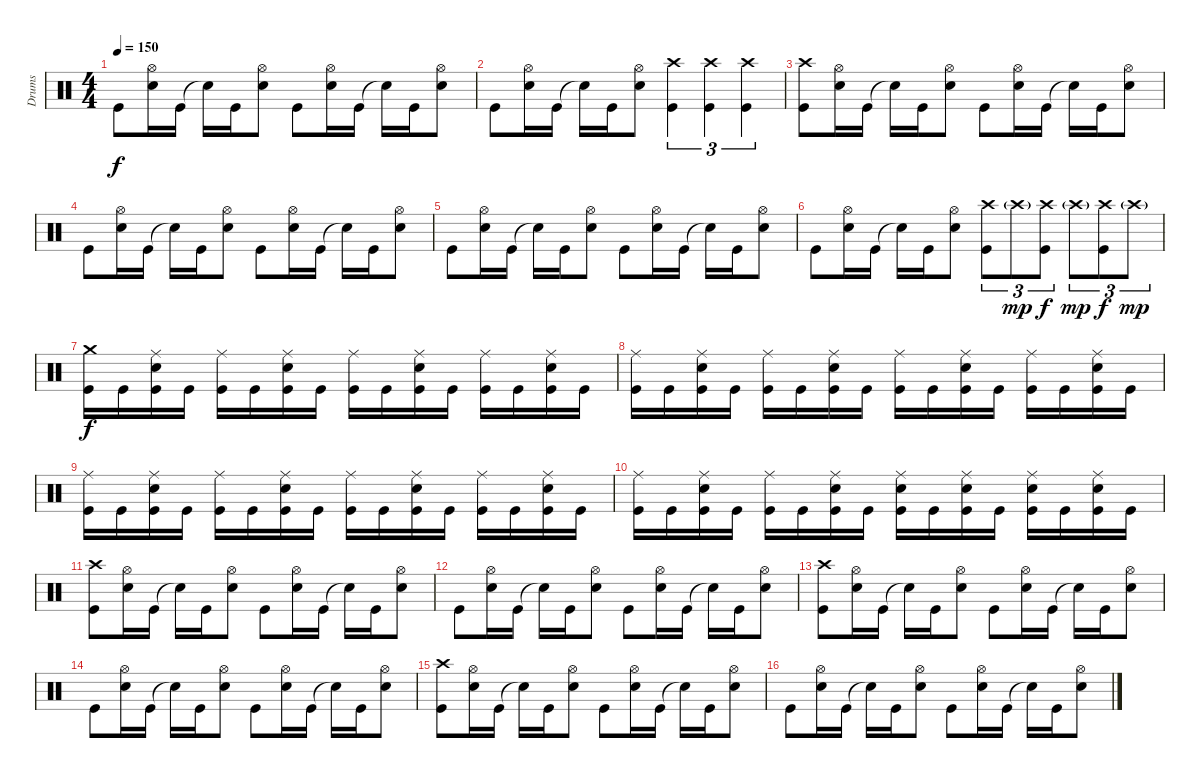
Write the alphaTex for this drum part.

\track ("Drums" "Drums") {instrument percussion}
\staff {score}
\articulation defaults
\ts (4 4)
\tempo 150
\clef neutral
\ks c "Kick (hit)".8{dy f}
("Snare (hit) 2" "Hi-Hat (open)").16 "Kick (hit)".16 "Snare (hit)"{t}.16 "Kick (hit)".16 ("Snare (hit) 2" "Hi-Hat (open)").8 "Kick (hit)".8 ("Snare (hit) 2" "Hi-Hat (open)").16 "Kick (hit)".16 "Snare (hit)"{t}.16 "Kick (hit)".16 ("Snare (hit) 2" "Hi-Hat (open)").8 |
"Kick (hit)".8 ("Snare (hit) 2" "Hi-Hat (open)").16 "Kick (hit)".16 "Snare (hit)"{t}.16 "Kick (hit)".16 ("Snare (hit) 2" "Hi-Hat (open)").8 ("Kick (hit)" "Crash high (hit)").4{tu (3 2)} ("Kick (hit)" "Crash high (hit)").4{tu (3 2)} ("Kick (hit)" "Crash high (hit)").4{tu (3 2)} |
("Kick (hit)" "Crash high (hit)").8 ("Snare (hit) 2" "Hi-Hat (open)").16 "Kick (hit)".16 "Snare (hit)"{t}.16 "Kick (hit)".16 ("Snare (hit) 2" "Hi-Hat (open)").8 "Kick (hit)".8 ("Snare (hit) 2" "Hi-Hat (open)").16 "Kick (hit)".16 "Snare (hit)"{t}.16 "Kick (hit)".16 ("Snare (hit) 2" "Hi-Hat (open)").8 |
"Kick (hit)".8 ("Snare (hit) 2" "Hi-Hat (open)").16 "Kick (hit)".16 "Snare (hit)"{t}.16 "Kick (hit)".16 ("Snare (hit) 2" "Hi-Hat (open)").8 "Kick (hit)".8 ("Snare (hit) 2" "Hi-Hat (open)").16 "Kick (hit)".16 "Snare (hit)"{t}.16 "Kick (hit)".16 ("Snare (hit) 2" "Hi-Hat (open)").8 |
"Kick (hit)".8 ("Snare (hit) 2" "Hi-Hat (open)").16 "Kick (hit)".16 "Snare (hit)"{t}.16 "Kick (hit)".16 ("Snare (hit) 2" "Hi-Hat (open)").8 "Kick (hit)".8 ("Snare (hit) 2" "Hi-Hat (open)").16 "Kick (hit)".16 "Snare (hit)"{t}.16 "Kick (hit)".16 ("Snare (hit) 2" "Hi-Hat (open)").8 |
"Kick (hit)".8 ("Snare (hit) 2" "Hi-Hat (open)").16 "Kick (hit)".16 "Snare (hit)"{t}.16 "Kick (hit)".16 ("Snare (hit) 2" "Hi-Hat (open)").8 ("Kick (hit)" "Crash high (hit)").8{tu (3 2)} "Crash high (hit)"{g}.8{tu (3 2) dy mp} ("Kick (hit)" "Crash high (hit)").8{tu (3 2) dy f} "Crash high (hit)"{g}.8{tu (3 2) dy mp} ("Kick (hit)" "Crash high (hit)").8{tu (3 2) dy f} "Crash high (hit)"{g}.8{tu (3 2) dy mp} |
("Kick (hit)" "Crash medium (hit)").16{dy f} "Kick (hit)".16 ("Kick (hit)" "Snare (hit) 2" "Ride (middle)").16 "Kick (hit)".16 ("Kick (hit)" "Ride (middle)").16 "Kick (hit)".16 ("Kick (hit)" "Snare (hit) 2" "Ride (middle)").16 "Kick (hit)".16 ("Kick (hit)" "Ride (middle)").16 "Kick (hit)".16 ("Kick (hit)" "Snare (hit) 2" "Ride (middle)").16 "Kick (hit)".16 ("Kick (hit)" "Ride (middle)").16 "Kick (hit)".16 ("Kick (hit)" "Snare (hit) 2" "Ride (middle)").16 "Kick (hit)".16 |
("Kick (hit)" "Ride (middle)").16 "Kick (hit)".16 ("Kick (hit)" "Snare (hit) 2" "Ride (middle)").16 "Kick (hit)".16 ("Kick (hit)" "Ride (middle)").16 "Kick (hit)".16 ("Kick (hit)" "Snare (hit) 2" "Ride (middle)").16 "Kick (hit)".16 ("Kick (hit)" "Ride (middle)").16 "Kick (hit)".16 ("Kick (hit)" "Snare (hit) 2" "Ride (middle)").16 "Kick (hit)".16 ("Kick (hit)" "Ride (middle)").16 "Kick (hit)".16 ("Kick (hit)" "Snare (hit) 2" "Ride (middle)").16 "Kick (hit)".16 |
("Kick (hit)" "Ride (middle)").16 "Kick (hit)".16 ("Kick (hit)" "Snare (hit) 2" "Ride (middle)").16 "Kick (hit)".16 ("Kick (hit)" "Ride (middle)").16 "Kick (hit)".16 ("Kick (hit)" "Snare (hit) 2" "Ride (middle)").16 "Kick (hit)".16 ("Kick (hit)" "Ride (middle)").16 "Kick (hit)".16 ("Kick (hit)" "Snare (hit) 2" "Ride (middle)").16 "Kick (hit)".16 ("Kick (hit)" "Ride (middle)").16 "Kick (hit)".16 ("Kick (hit)" "Snare (hit) 2" "Ride (middle)").16 "Kick (hit)".16 |
("Kick (hit)" "Ride (middle)").16 "Kick (hit)".16 ("Kick (hit)" "Snare (hit) 2" "Ride (middle)").16 "Kick (hit)".16 ("Kick (hit)" "Ride (middle)").16 "Kick (hit)".16 ("Kick (hit)" "Snare (hit) 2" "Ride (middle)").16 "Kick (hit)".16 ("Kick (hit)" "Snare (hit) 2" "Ride (middle)").16 "Kick (hit)".16 ("Kick (hit)" "Snare (hit) 2" "Ride (middle)").16 "Kick (hit)".16 ("Kick (hit)" "Snare (hit) 2" "Ride (middle)").16 "Kick (hit)".16 ("Kick (hit)" "Snare (hit) 2" "Ride (middle)").16 "Kick (hit)".16 |
("Kick (hit)" "Crash high (hit)").8 ("Snare (hit) 2" "Hi-Hat (open)").16 "Kick (hit)".16 "Snare (hit)"{t}.16 "Kick (hit)".16 ("Snare (hit) 2" "Hi-Hat (open)").8 "Kick (hit)".8 ("Snare (hit) 2" "Hi-Hat (open)").16 "Kick (hit)".16 "Snare (hit)"{t}.16 "Kick (hit)".16 ("Snare (hit) 2" "Hi-Hat (open)").8 |
"Kick (hit)".8 ("Snare (hit) 2" "Hi-Hat (open)").16 "Kick (hit)".16 "Snare (hit)"{t}.16 "Kick (hit)".16 ("Snare (hit) 2" "Hi-Hat (open)").8 "Kick (hit)".8 ("Snare (hit) 2" "Hi-Hat (open)").16 "Kick (hit)".16 "Snare (hit)"{t}.16 "Kick (hit)".16 ("Snare (hit) 2" "Hi-Hat (open)").8 |
("Kick (hit)" "Crash high (hit)").8 ("Snare (hit) 2" "Hi-Hat (open)").16 "Kick (hit)".16 "Snare (hit)"{t}.16 "Kick (hit)".16 ("Snare (hit) 2" "Hi-Hat (open)").8 "Kick (hit)".8 ("Snare (hit) 2" "Hi-Hat (open)").16 "Kick (hit)".16 "Snare (hit)"{t}.16 "Kick (hit)".16 ("Snare (hit) 2" "Hi-Hat (open)").8 |
"Kick (hit)".8 ("Snare (hit) 2" "Hi-Hat (open)").16 "Kick (hit)".16 "Snare (hit)"{t}.16 "Kick (hit)".16 ("Snare (hit) 2" "Hi-Hat (open)").8 "Kick (hit)".8 ("Snare (hit) 2" "Hi-Hat (open)").16 "Kick (hit)".16 "Snare (hit)"{t}.16 "Kick (hit)".16 ("Snare (hit) 2" "Hi-Hat (open)").8 |
("Kick (hit)" "Crash high (hit)").8 ("Snare (hit) 2" "Hi-Hat (open)").16 "Kick (hit)".16 "Snare (hit)"{t}.16 "Kick (hit)".16 ("Snare (hit) 2" "Hi-Hat (open)").8 "Kick (hit)".8 ("Snare (hit) 2" "Hi-Hat (open)").16 "Kick (hit)".16 "Snare (hit)"{t}.16 "Kick (hit)".16 ("Snare (hit) 2" "Hi-Hat (open)").8 |
"Kick (hit)".8 ("Snare (hit) 2" "Hi-Hat (open)").16 "Kick (hit)".16 "Snare (hit)"{t}.16 "Kick (hit)".16 ("Snare (hit) 2" "Hi-Hat (open)").8 "Kick (hit)".8 ("Snare (hit) 2" "Hi-Hat (open)").16 "Kick (hit)".16 "Snare (hit)"{t}.16 "Kick (hit)".16 ("Snare (hit) 2" "Hi-Hat (open)").8
